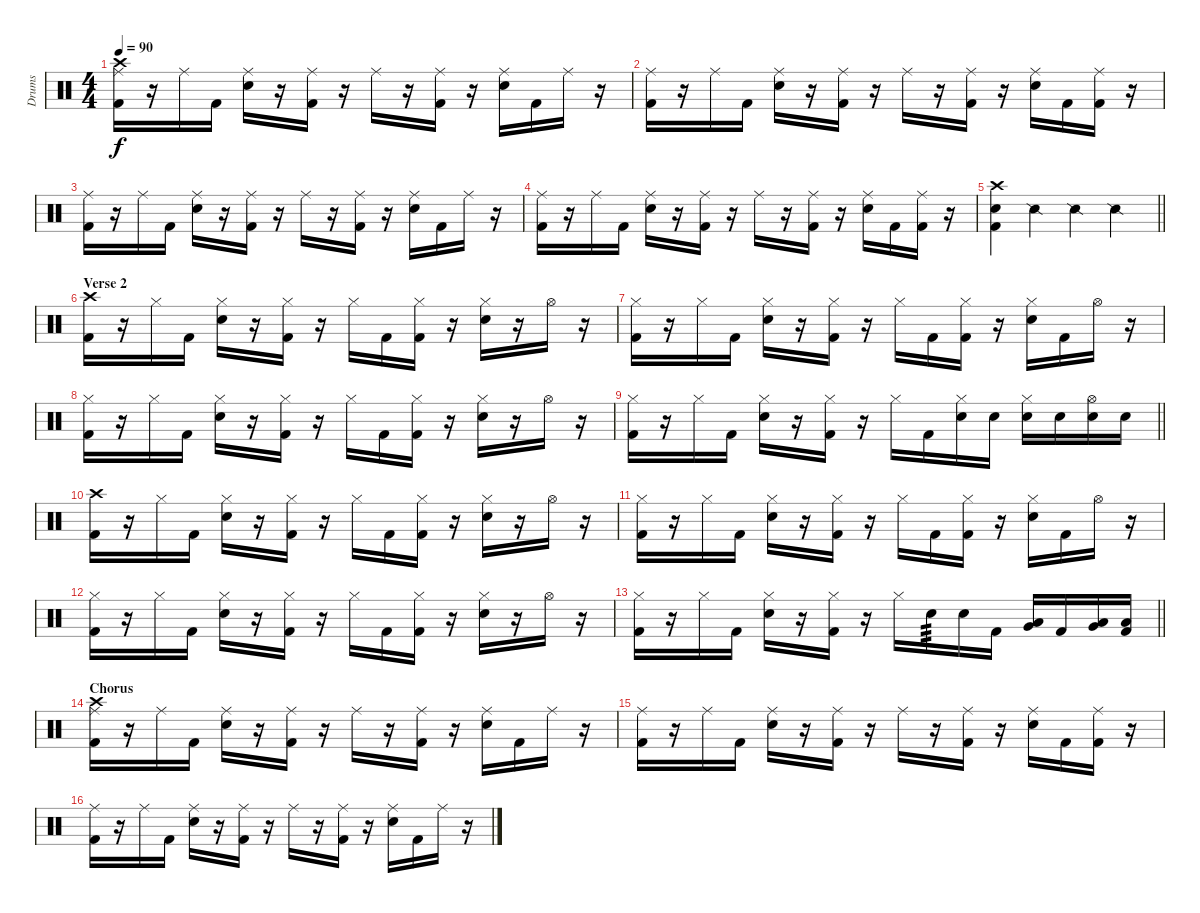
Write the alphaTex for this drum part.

\track ("Drums" "Drums") {instrument percussion}
\staff {score}
\articulation defaults
\ts (4 4)
\tempo 90
\clef neutral
\ks c
("Crash high (hit)" "Ride (middle)" "Kick (hit) 2").16{dy f} r.16 "Ride (middle)".16 "Kick (hit) 2".16 ("Ride (middle)" "Electric Snare (hit)").16 r.16 ("Ride (middle)" "Kick (hit) 2").16 r.16 "Ride (middle)".16 r.16 ("Ride (middle)" "Kick (hit) 2").16 r.16 ("Ride (middle)" "Electric Snare (hit)").16 "Kick (hit) 2".16 "Ride (middle)".16 r.16 |
("Ride (middle)" "Kick (hit) 2").16 r.16 "Ride (middle)".16 "Kick (hit) 2".16 ("Ride (middle)" "Electric Snare (hit)").16 r.16 ("Ride (middle)" "Kick (hit) 2").16 r.16 "Ride (middle)".16 r.16 ("Ride (middle)" "Kick (hit) 2").16 r.16 ("Ride (middle)" "Electric Snare (hit)").16 "Kick (hit) 2".16 ("Ride (middle)" "Kick (hit) 2").16 r.16 |
("Ride (middle)" "Kick (hit) 2").16 r.16 "Ride (middle)".16 "Kick (hit) 2".16 ("Ride (middle)" "Electric Snare (hit)").16 r.16 ("Ride (middle)" "Kick (hit) 2").16 r.16 "Ride (middle)".16 r.16 ("Ride (middle)" "Kick (hit) 2").16 r.16 ("Ride (middle)" "Electric Snare (hit)").16 "Kick (hit) 2".16 "Ride (middle)".16 r.16 |
("Ride (middle)" "Kick (hit) 2").16 r.16 "Ride (middle)".16 "Kick (hit) 2".16 ("Ride (middle)" "Electric Snare (hit)").16 r.16 ("Ride (middle)" "Kick (hit) 2").16 r.16 "Ride (middle)".16 r.16 ("Ride (middle)" "Kick (hit) 2").16 r.16 ("Ride (middle)" "Electric Snare (hit)").16 "Kick (hit) 2".16 ("Ride (middle)" "Kick (hit) 2").16 r.16 |
\barLineRight lightlight
("Crash high (hit)" "Electric Snare (hit)" "Kick (hit) 2").4 "Snare (side stick) 2".4 "Snare (side stick) 2".4 "Snare (side stick) 2".4 |
\section ("" "Verse 2")
("Crash high (hit)" "Kick (hit) 2").16 r.16 "Hi-Hat (closed)".16 "Kick (hit) 2".16 ("Hi-Hat (closed)" "Electric Snare (hit)").16 r.16 ("Hi-Hat (closed)" "Kick (hit) 2").16 r.16 "Hi-Hat (closed)".16 "Kick (hit) 2".16 ("Hi-Hat (closed)" "Kick (hit) 2").16 r.16 ("Hi-Hat (closed)" "Electric Snare (hit)").16 r.16 "Hi-Hat (open)".16 r.16 |
("Hi-Hat (closed)" "Kick (hit) 2").16 r.16 "Hi-Hat (closed)".16 "Kick (hit) 2".16 ("Hi-Hat (closed)" "Electric Snare (hit)").16 r.16 ("Hi-Hat (closed)" "Kick (hit) 2").16 r.16 "Hi-Hat (closed)".16 "Kick (hit) 2".16 ("Hi-Hat (closed)" "Kick (hit) 2").16 r.16 ("Hi-Hat (closed)" "Electric Snare (hit)").16 "Kick (hit) 2".16 "Hi-Hat (open)".16 r.16 |
("Hi-Hat (closed)" "Kick (hit) 2").16 r.16 "Hi-Hat (closed)".16 "Kick (hit) 2".16 ("Hi-Hat (closed)" "Electric Snare (hit)").16 r.16 ("Hi-Hat (closed)" "Kick (hit) 2").16 r.16 "Hi-Hat (closed)".16 "Kick (hit) 2".16 ("Hi-Hat (closed)" "Kick (hit) 2").16 r.16 ("Hi-Hat (closed)" "Electric Snare (hit)").16 r.16 "Hi-Hat (open)".16 r.16 |
\barLineRight lightlight
("Hi-Hat (closed)" "Kick (hit) 2").16 r.16 "Hi-Hat (closed)".16 "Kick (hit) 2".16 ("Hi-Hat (closed)" "Electric Snare (hit)").16 r.16 ("Hi-Hat (closed)" "Kick (hit) 2").16 r.16 "Hi-Hat (closed)".16 "Kick (hit) 2".16 ("Hi-Hat (closed)" "Electric Snare (hit)").16 "Electric Snare (hit)".16 ("Hi-Hat (closed)" "Electric Snare (hit)").16 "Electric Snare (hit)".16 ("Hi-Hat (open)" "Electric Snare (hit)").16 "Electric Snare (hit)".16 |
("Crash high (hit)" "Kick (hit) 2").16 r.16 "Hi-Hat (closed)".16 "Kick (hit) 2".16 ("Hi-Hat (closed)" "Electric Snare (hit)").16 r.16 ("Hi-Hat (closed)" "Kick (hit) 2").16 r.16 "Hi-Hat (closed)".16 "Kick (hit) 2".16 ("Hi-Hat (closed)" "Kick (hit) 2").16 r.16 ("Hi-Hat (closed)" "Electric Snare (hit)").16 r.16 "Hi-Hat (open)".16 r.16 |
("Hi-Hat (closed)" "Kick (hit) 2").16 r.16 "Hi-Hat (closed)".16 "Kick (hit) 2".16 ("Hi-Hat (closed)" "Electric Snare (hit)").16 r.16 ("Hi-Hat (closed)" "Kick (hit) 2").16 r.16 "Hi-Hat (closed)".16 "Kick (hit) 2".16 ("Hi-Hat (closed)" "Kick (hit) 2").16 r.16 ("Hi-Hat (closed)" "Electric Snare (hit)").16 "Kick (hit) 2".16 "Hi-Hat (open)".16 r.16 |
("Hi-Hat (closed)" "Kick (hit) 2").16 r.16 "Hi-Hat (closed)".16 "Kick (hit) 2".16 ("Hi-Hat (closed)" "Electric Snare (hit)").16 r.16 ("Hi-Hat (closed)" "Kick (hit) 2").16 r.16 "Hi-Hat (closed)".16 "Kick (hit) 2".16 ("Hi-Hat (closed)" "Kick (hit) 2").16 r.16 ("Hi-Hat (closed)" "Electric Snare (hit)").16 r.16 "Hi-Hat (open)".16 r.16 |
\barLineRight lightlight
("Hi-Hat (closed)" "Kick (hit) 2").16 r.16 "Hi-Hat (closed)".16 "Kick (hit) 2".16 ("Hi-Hat (closed)" "Electric Snare (hit)").16 r.16 ("Hi-Hat (closed)" "Kick (hit) 2").16 r.16 "Hi-Hat (closed)".16 "Electric Snare (hit)".16{tp 3} "Electric Snare (hit)".16 "Kick (hit) 2".16 ("Low Tom (hit)" "Very Low Tom (hit)").16 "Kick (hit) 2".16 ("Very Low Tom (hit)" "Low Floor Tom (hit)").16 ("Low Floor Tom (hit)" "Kick (hit) 2").16 |
\section ("" "Chorus")
("Crash high (hit)" "Ride (middle)" "Kick (hit) 2").16 r.16 "Ride (middle)".16 "Kick (hit) 2".16 ("Ride (middle)" "Electric Snare (hit)").16 r.16 ("Ride (middle)" "Kick (hit) 2").16 r.16 "Ride (middle)".16 r.16 ("Ride (middle)" "Kick (hit) 2").16 r.16 ("Ride (middle)" "Electric Snare (hit)").16 "Kick (hit) 2".16 "Ride (middle)".16 r.16 |
("Ride (middle)" "Kick (hit) 2").16 r.16 "Ride (middle)".16 "Kick (hit) 2".16 ("Ride (middle)" "Electric Snare (hit)").16 r.16 ("Ride (middle)" "Kick (hit) 2").16 r.16 "Ride (middle)".16 r.16 ("Ride (middle)" "Kick (hit) 2").16 r.16 ("Ride (middle)" "Electric Snare (hit)").16 "Kick (hit) 2".16 ("Ride (middle)" "Kick (hit) 2").16 r.16 |
("Ride (middle)" "Kick (hit) 2").16 r.16 "Ride (middle)".16 "Kick (hit) 2".16 ("Ride (middle)" "Electric Snare (hit)").16 r.16 ("Ride (middle)" "Kick (hit) 2").16 r.16 "Ride (middle)".16 r.16 ("Ride (middle)" "Kick (hit) 2").16 r.16 ("Ride (middle)" "Electric Snare (hit)").16 "Kick (hit) 2".16 "Ride (middle)".16 r.16
